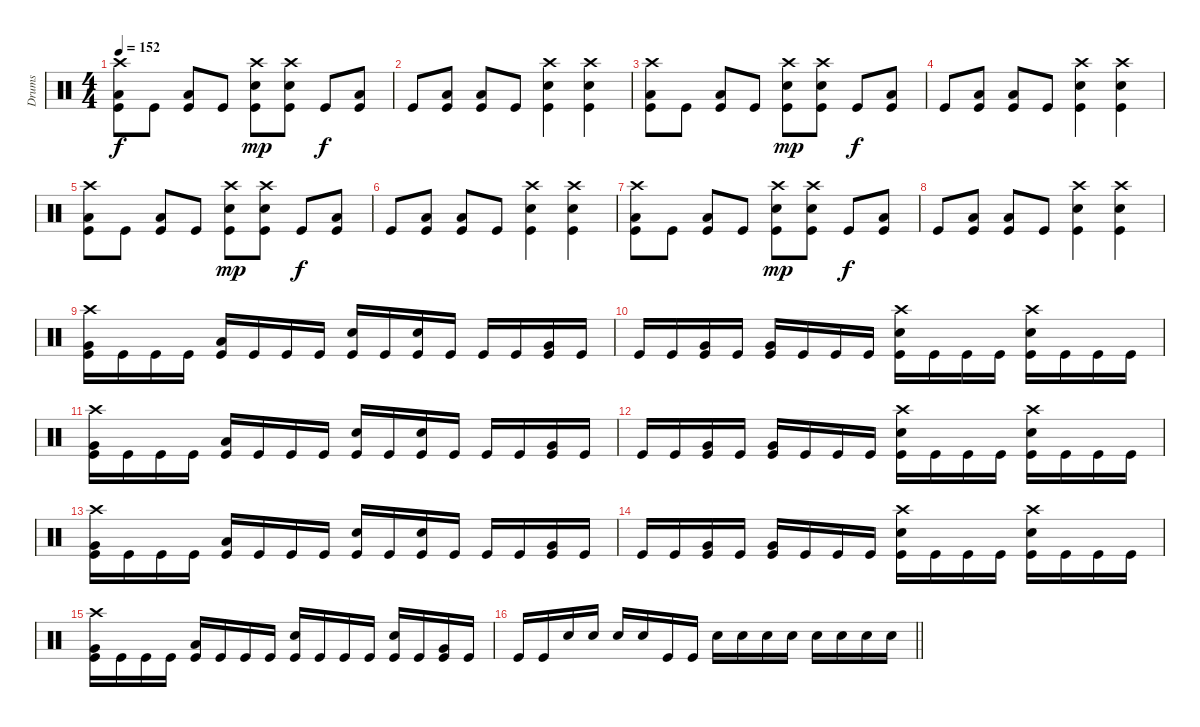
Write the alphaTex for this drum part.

\track ("Drums" "Drums") {instrument percussion}
\staff {score}
\articulation defaults
\ts (4 4)
\tempo 152
\clef neutral
\ks c
("Crash high (hit)" "Kick (hit)" "Low Floor Tom (hit)").8{dy f} "Kick (hit)".8 ("Kick (hit)" "Low Floor Tom (hit)").8 "Kick (hit)".8 ("Crash high (hit)" "Snare (hit) 2" "Kick (hit)").8{dy mp} ("Crash high (hit)" "Snare (hit) 2" "Kick (hit)").8 "Kick (hit)".8{dy f} ("Kick (hit)" "Low Floor Tom (hit)").8 |
"Kick (hit)".8 ("Low Floor Tom (hit)" "Kick (hit)").8 ("Low Floor Tom (hit)" "Kick (hit)").8 "Kick (hit)".8 ("Crash high (hit)" "Snare (hit) 2" "Kick (hit)").4 ("Crash high (hit)" "Snare (hit) 2" "Kick (hit)").4 |
("Crash high (hit)" "Kick (hit)" "Low Floor Tom (hit)").8 "Kick (hit)".8 ("Kick (hit)" "Low Floor Tom (hit)").8 "Kick (hit)".8 ("Crash high (hit)" "Snare (hit) 2" "Kick (hit)").8{dy mp} ("Crash high (hit)" "Snare (hit) 2" "Kick (hit)").8 "Kick (hit)".8{dy f} ("Kick (hit)" "Low Floor Tom (hit)").8 |
"Kick (hit)".8 ("Low Floor Tom (hit)" "Kick (hit)").8 ("Low Floor Tom (hit)" "Kick (hit)").8 "Kick (hit)".8 ("Crash high (hit)" "Snare (hit) 2" "Kick (hit)").4 ("Crash high (hit)" "Snare (hit) 2" "Kick (hit)").4 |
("Crash high (hit)" "Kick (hit)" "Low Floor Tom (hit)").8 "Kick (hit)".8 ("Kick (hit)" "Low Floor Tom (hit)").8 "Kick (hit)".8 ("Crash high (hit)" "Snare (hit) 2" "Kick (hit)").8{dy mp} ("Crash high (hit)" "Snare (hit) 2" "Kick (hit)").8 "Kick (hit)".8{dy f} ("Kick (hit)" "Low Floor Tom (hit)").8 |
"Kick (hit)".8 ("Low Floor Tom (hit)" "Kick (hit)").8 ("Low Floor Tom (hit)" "Kick (hit)").8 "Kick (hit)".8 ("Crash high (hit)" "Snare (hit) 2" "Kick (hit)").4 ("Crash high (hit)" "Snare (hit) 2" "Kick (hit)").4 |
("Crash high (hit)" "Kick (hit)" "Low Floor Tom (hit)").8 "Kick (hit)".8 ("Kick (hit)" "Low Floor Tom (hit)").8 "Kick (hit)".8 ("Crash high (hit)" "Snare (hit) 2" "Kick (hit)").8{dy mp} ("Crash high (hit)" "Snare (hit) 2" "Kick (hit)").8 "Kick (hit)".8{dy f} ("Kick (hit)" "Low Floor Tom (hit)").8 |
"Kick (hit)".8 ("Low Floor Tom (hit)" "Kick (hit)").8 ("Low Floor Tom (hit)" "Kick (hit)").8 "Kick (hit)".8 ("Crash high (hit)" "Snare (hit) 2" "Kick (hit)").4 ("Crash high (hit)" "Snare (hit) 2" "Kick (hit)").4 |
("Very Low Tom (hit)" "Crash high (hit)" "Kick (hit)").16 "Kick (hit)".16 "Kick (hit)".16 "Kick (hit)".16 ("Low Floor Tom (hit)" "Kick (hit)").16 "Kick (hit)".16 "Kick (hit)".16 "Kick (hit)".16 ("Snare (hit) 2" "Kick (hit)").16 "Kick (hit)".16 ("Snare (hit) 2" "Kick (hit)").16 "Kick (hit)".16 "Kick (hit)".16 "Kick (hit)".16 ("Very Low Tom (hit)" "Kick (hit)").16 "Kick (hit)".16 |
"Kick (hit)".16 "Kick (hit)".16 ("Very Low Tom (hit)" "Kick (hit)").16 "Kick (hit)".16 ("Very Low Tom (hit)" "Kick (hit)").16 "Kick (hit)".16 "Kick (hit)".16 "Kick (hit)".16 ("Crash high (hit)" "Snare (hit) 2" "Kick (hit)").16 "Kick (hit)".16 "Kick (hit)".16 "Kick (hit)".16 ("Crash high (hit)" "Snare (hit) 2" "Kick (hit)").16 "Kick (hit)".16 "Kick (hit)".16 "Kick (hit)".16 |
("Very Low Tom (hit)" "Crash high (hit)" "Kick (hit)").16 "Kick (hit)".16 "Kick (hit)".16 "Kick (hit)".16 ("Low Floor Tom (hit)" "Kick (hit)").16 "Kick (hit)".16 "Kick (hit)".16 "Kick (hit)".16 ("Snare (hit) 2" "Kick (hit)").16 "Kick (hit)".16 ("Snare (hit) 2" "Kick (hit)").16 "Kick (hit)".16 "Kick (hit)".16 "Kick (hit)".16 ("Very Low Tom (hit)" "Kick (hit)").16 "Kick (hit)".16 |
"Kick (hit)".16 "Kick (hit)".16 ("Very Low Tom (hit)" "Kick (hit)").16 "Kick (hit)".16 ("Very Low Tom (hit)" "Kick (hit)").16 "Kick (hit)".16 "Kick (hit)".16 "Kick (hit)".16 ("Crash high (hit)" "Snare (hit) 2" "Kick (hit)").16 "Kick (hit)".16 "Kick (hit)".16 "Kick (hit)".16 ("Crash high (hit)" "Snare (hit) 2" "Kick (hit)").16 "Kick (hit)".16 "Kick (hit)".16 "Kick (hit)".16 |
("Very Low Tom (hit)" "Crash high (hit)" "Kick (hit)").16 "Kick (hit)".16 "Kick (hit)".16 "Kick (hit)".16 ("Low Floor Tom (hit)" "Kick (hit)").16 "Kick (hit)".16 "Kick (hit)".16 "Kick (hit)".16 ("Snare (hit) 2" "Kick (hit)").16 "Kick (hit)".16 ("Snare (hit) 2" "Kick (hit)").16 "Kick (hit)".16 "Kick (hit)".16 "Kick (hit)".16 ("Very Low Tom (hit)" "Kick (hit)").16 "Kick (hit)".16 |
"Kick (hit)".16 "Kick (hit)".16 ("Very Low Tom (hit)" "Kick (hit)").16 "Kick (hit)".16 ("Very Low Tom (hit)" "Kick (hit)").16 "Kick (hit)".16 "Kick (hit)".16 "Kick (hit)".16 ("Crash high (hit)" "Snare (hit) 2" "Kick (hit)").16 "Kick (hit)".16 "Kick (hit)".16 "Kick (hit)".16 ("Crash high (hit)" "Snare (hit) 2" "Kick (hit)").16 "Kick (hit)".16 "Kick (hit)".16 "Kick (hit)".16 |
("Very Low Tom (hit)" "Crash high (hit)" "Kick (hit)").16 "Kick (hit)".16 "Kick (hit)".16 "Kick (hit)".16 ("Low Floor Tom (hit)" "Kick (hit)").16 "Kick (hit)".16 "Kick (hit)".16 "Kick (hit)".16 ("Snare (hit) 2" "Kick (hit)").16 "Kick (hit)".16 "Kick (hit)".16 "Kick (hit)".16 ("Snare (hit) 2" "Kick (hit)").16 "Kick (hit)".16 ("Very Low Tom (hit)" "Kick (hit)").16 "Kick (hit)".16 |
\barLineRight lightlight "Kick (hit)".16 "Kick (hit)".16 "Snare (hit) 2".16 "Snare (hit) 2".16 "Snare (hit) 2".16 "Snare (hit) 2".16 "Kick (hit)".16 "Kick (hit)".16 "Snare (hit) 2".16 "Snare (hit) 2".16 "Snare (hit) 2".16 "Snare (hit) 2".16 "Snare (hit) 2".16 "Snare (hit) 2".16 "Snare (hit) 2".16 "Snare (hit) 2".16
